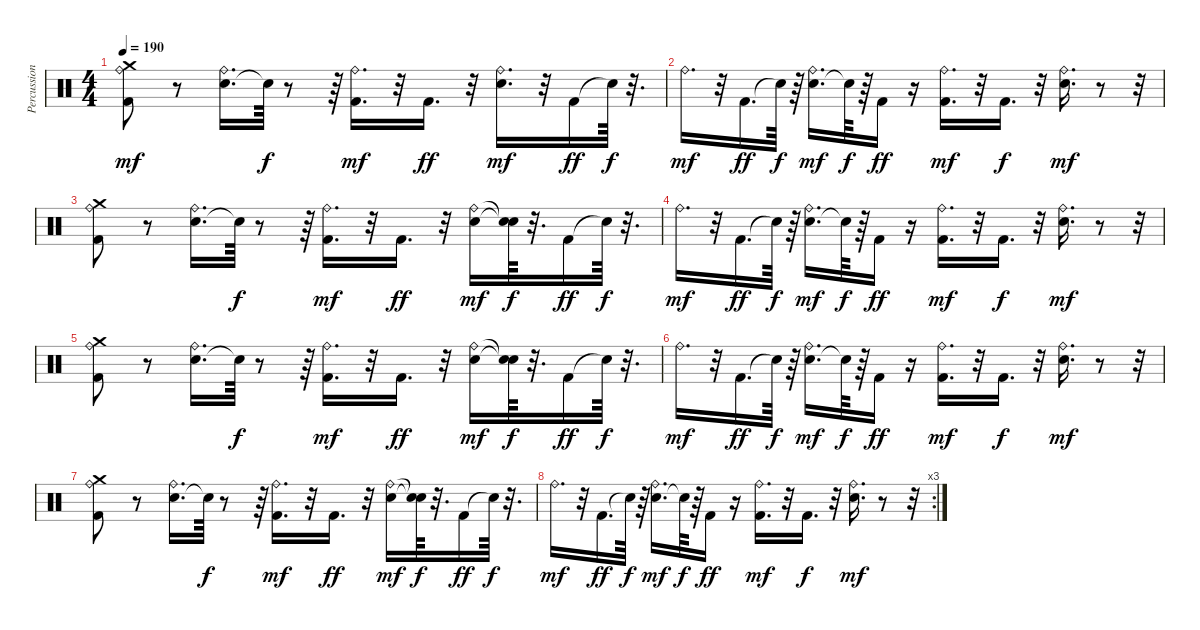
\track ("Percussion" "Percussion") {instrument percussion}
\staff {score}
\articulation defaults
\ts (4 4)
\tempo 190
\clef neutral
\ks c
("Kick (hit) 2" "Ride (bell)" "Crash medium (hit)").8{dy mf} r.8 ("Electric Snare (hit)" "Ride (bell)").16{d} "Snare (hit)"{t}.64{dy f} r.8 r.64 ("Kick (hit) 2" "Ride (bell)").16{d dy mf} r.32 "Kick (hit) 2".16{d dy ff} r.32 ("Electric Snare (hit)" "Ride (bell)").16{d dy mf} r.32 "Kick (hit) 2".16{dy ff} "Snare (hit)"{t}.64{dy f} r.32{d} |
"Ride (bell)".16{d dy mf} r.32 "Kick (hit) 2".16{d dy ff} "Snare (hit)"{t}.64{dy f} r.64 ("Electric Snare (hit)" "Ride (bell)").16{d dy mf} "Snare (hit)"{t}.64{dy f} r.64 "Kick (hit) 2".16{dy ff} r.16 ("Kick (hit) 2" "Ride (bell)").16{d dy mf} r.32 "Kick (hit) 2".16{d dy f} r.32 ("Electric Snare (hit)" "Ride (bell)").16{d dy mf} r.8 r.32 |
("Kick (hit) 2" "Ride (bell)" "Crash medium (hit)").8 r.8 ("Electric Snare (hit)" "Ride (bell)").16{d} "Snare (hit)"{t}.64{dy f} r.8 r.64 ("Kick (hit) 2" "Ride (bell)").16{d dy mf} r.32 "Kick (hit) 2".16{d dy ff} r.32 ("Electric Snare (hit)" "Ride (bell)").16{dy mf} ("Snare (hit)"{t} "Snare (hit)"{t}).64{dy f} r.32{d} "Kick (hit) 2".16{dy ff} "Snare (hit)"{t}.64{dy f} r.32{d} |
"Ride (bell)".16{d dy mf} r.32 "Kick (hit) 2".16{d dy ff} "Snare (hit)"{t}.64{dy f} r.64 ("Electric Snare (hit)" "Ride (bell)").16{d dy mf} "Snare (hit)"{t}.64{dy f} r.64 "Kick (hit) 2".16{dy ff} r.16 ("Kick (hit) 2" "Ride (bell)").16{d dy mf} r.32 "Kick (hit) 2".16{d dy f} r.32 ("Electric Snare (hit)" "Ride (bell)").16{d dy mf} r.8 r.32 |
("Kick (hit) 2" "Ride (bell)" "Crash medium (hit)").8 r.8 ("Electric Snare (hit)" "Ride (bell)").16{d} "Snare (hit)"{t}.64{dy f} r.8 r.64 ("Kick (hit) 2" "Ride (bell)").16{d dy mf} r.32 "Kick (hit) 2".16{d dy ff} r.32 ("Electric Snare (hit)" "Ride (bell)").16{dy mf} ("Snare (hit)"{t} "Snare (hit)"{t}).64{dy f} r.32{d} "Kick (hit) 2".16{dy ff} "Snare (hit)"{t}.64{dy f} r.32{d} |
"Ride (bell)".16{d dy mf} r.32 "Kick (hit) 2".16{d dy ff} "Snare (hit)"{t}.64{dy f} r.64 ("Electric Snare (hit)" "Ride (bell)").16{d dy mf} "Snare (hit)"{t}.64{dy f} r.64 "Kick (hit) 2".16{dy ff} r.16 ("Kick (hit) 2" "Ride (bell)").16{d dy mf} r.32 "Kick (hit) 2".16{d dy f} r.32 ("Electric Snare (hit)" "Ride (bell)").16{d dy mf} r.8 r.32 |
("Kick (hit) 2" "Ride (bell)" "Crash medium (hit)").8 r.8 ("Electric Snare (hit)" "Ride (bell)").16{d} "Snare (hit)"{t}.64{dy f} r.8 r.64 ("Kick (hit) 2" "Ride (bell)").16{d dy mf} r.32 "Kick (hit) 2".16{d dy ff} r.32 ("Electric Snare (hit)" "Ride (bell)").16{dy mf} ("Snare (hit)"{t} "Snare (hit)"{t}).64{dy f} r.32{d} "Kick (hit) 2".16{dy ff} "Snare (hit)"{t}.64{dy f} r.32{d} |
\rc 3 "Ride (bell)".16{d dy mf}
r.32 "Kick (hit) 2".16{d dy ff} "Snare (hit)"{t}.64{dy f} r.64 ("Electric Snare (hit)" "Ride (bell)").16{d dy mf} "Snare (hit)"{t}.64{dy f} r.64 "Kick (hit) 2".16{dy ff} r.16 ("Kick (hit) 2" "Ride (bell)").16{d dy mf} r.32 "Kick (hit) 2".16{d dy f} r.32 ("Electric Snare (hit)" "Ride (bell)").16{d dy mf} r.8 r.32
